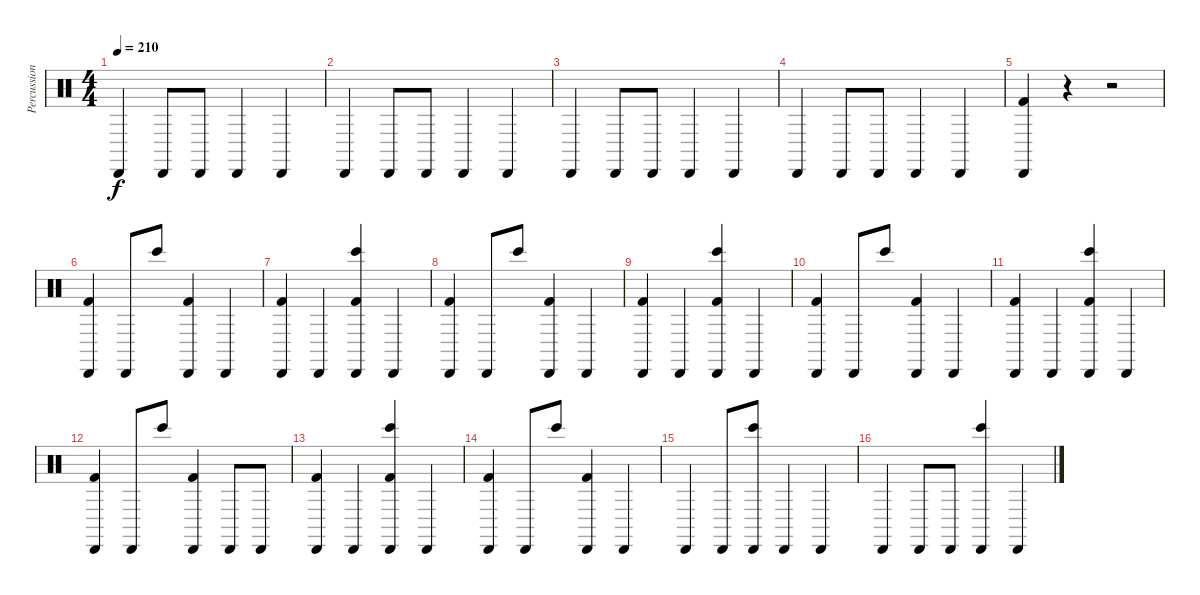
\track ("Percussions" "Percussion") {instrument percussion}
\staff {score}
\articulation defaults
\ts (4 4)
\tempo 210
\clef neutral
\ks c "Cabasa (hit)".4{dy f} "Cabasa (hit)".8 "Cabasa (hit)".8 "Cabasa (hit)".4 "Cabasa (hit)".4
|
"Cabasa (hit)".4 "Cabasa (hit)".8 "Cabasa (hit)".8 "Cabasa (hit)".4 "Cabasa (hit)".4 |
"Cabasa (hit)".4 "Cabasa (hit)".8 "Cabasa (hit)".8 "Cabasa (hit)".4 "Cabasa (hit)".4 |
"Cabasa (hit)".4 "Cabasa (hit)".8 "Cabasa (hit)".8 "Cabasa (hit)".4 "Cabasa (hit)".4 |
("Kick (hit) 2" "Cabasa (hit)").4 r.4 r.2 |
("Kick (hit) 2" "Cabasa (hit)").4 "Cabasa (hit)".8 "Bongo High (hit)".8 ("Kick (hit) 2" "Cabasa (hit)").4 "Cabasa (hit)".4 |
("Kick (hit) 2" "Cabasa (hit)").4 "Cabasa (hit)".4 ("Bongo High (hit)" "Kick (hit) 2" "Cabasa (hit)").4 "Cabasa (hit)".4 |
("Kick (hit) 2" "Cabasa (hit)").4 "Cabasa (hit)".8 "Bongo High (hit)".8 ("Kick (hit) 2" "Cabasa (hit)").4 "Cabasa (hit)".4 |
("Kick (hit) 2" "Cabasa (hit)").4 "Cabasa (hit)".4 ("Bongo High (hit)" "Kick (hit) 2" "Cabasa (hit)").4 "Cabasa (hit)".4 |
("Kick (hit) 2" "Cabasa (hit)").4 "Cabasa (hit)".8 "Bongo High (hit)".8 ("Kick (hit) 2" "Cabasa (hit)").4 "Cabasa (hit)".4 |
("Kick (hit) 2" "Cabasa (hit)").4 "Cabasa (hit)".4 ("Bongo High (hit)" "Kick (hit) 2" "Cabasa (hit)").4 "Cabasa (hit)".4 |
("Kick (hit) 2" "Cabasa (hit)").4 "Cabasa (hit)".8 "Bongo High (hit)".8 ("Kick (hit) 2" "Cabasa (hit)").4 "Cabasa (hit)".8 "Cabasa (hit)".8 |
("Kick (hit) 2" "Cabasa (hit)").4 "Cabasa (hit)".4 ("Bongo High (hit)" "Kick (hit) 2" "Cabasa (hit)").4 "Cabasa (hit)".4 |
("Kick (hit) 2" "Cabasa (hit)").4 "Cabasa (hit)".8 "Bongo High (hit)".8 ("Kick (hit) 2" "Cabasa (hit)").4 "Cabasa (hit)".4 |
"Cabasa (hit)".4 "Cabasa (hit)".8 ("Bongo High (hit)" "Cabasa (hit)").8 "Cabasa (hit)".4 "Cabasa (hit)".4 |
"Cabasa (hit)".4 "Cabasa (hit)".8 "Cabasa (hit)".8 ("Bongo High (hit)" "Cabasa (hit)").4 "Cabasa (hit)".4
